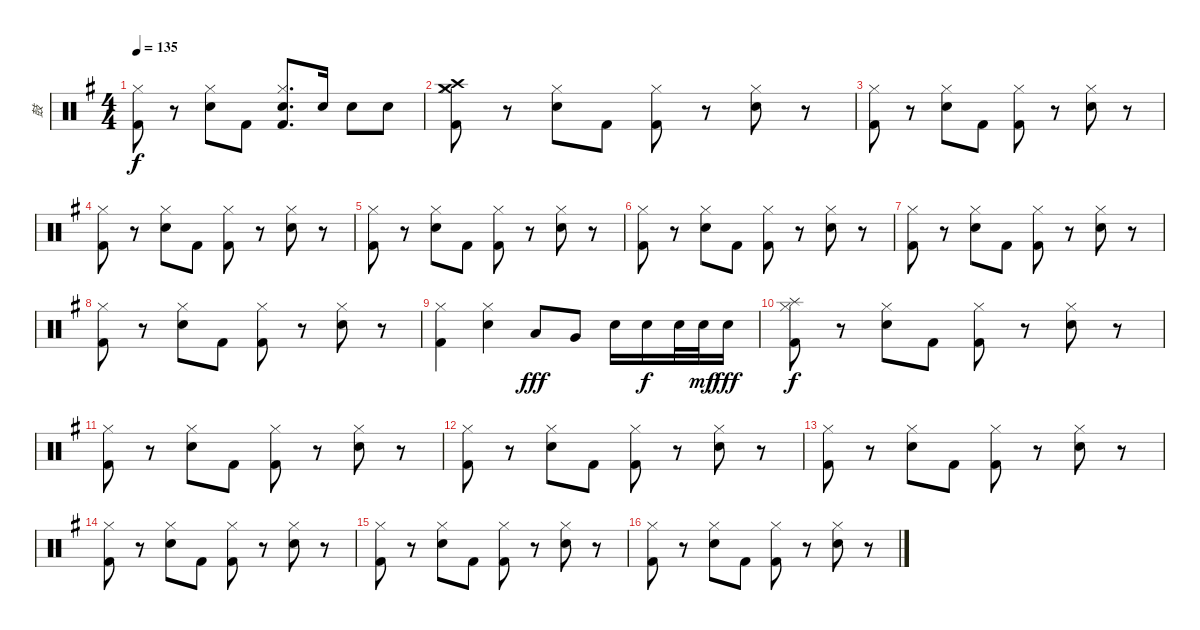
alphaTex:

\track ("鼓" "鼓") {instrument percussion}
\staff {score}
\articulation defaults
\ts (4 4)
\tempo 135
\clef neutral
\ks g
("Kick (hit) 2" "Hi-Hat (closed)").8{dy f} r.8 ("Snare (hit) 2" "Hi-Hat (closed)").8 "Kick (hit) 2".8 ("Kick (hit) 2" "Snare (hit) 2" "Hi-Hat (closed)").8{d} "Snare (hit) 2".16 "Snare (hit) 2".8 "Snare (hit) 2".8 |
("Crash high (hit)" "Crash medium (hit)" "Kick (hit) 2" "Hi-Hat (closed)").8 r.8 ("Snare (hit) 2" "Hi-Hat (closed)").8 "Kick (hit) 2".8 ("Kick (hit) 2" "Hi-Hat (closed)").8 r.8 ("Snare (hit) 2" "Hi-Hat (closed)").8 r.8 |
("Kick (hit) 2" "Hi-Hat (closed)").8 r.8 ("Snare (hit) 2" "Hi-Hat (closed)").8 "Kick (hit) 2".8 ("Kick (hit) 2" "Hi-Hat (closed)").8 r.8 ("Snare (hit) 2" "Hi-Hat (closed)").8 r.8 |
("Kick (hit) 2" "Hi-Hat (closed)").8 r.8 ("Snare (hit) 2" "Hi-Hat (closed)").8 "Kick (hit) 2".8 ("Kick (hit) 2" "Hi-Hat (closed)").8 r.8 ("Snare (hit) 2" "Hi-Hat (closed)").8 r.8 |
("Kick (hit) 2" "Hi-Hat (closed)").8 r.8 ("Snare (hit) 2" "Hi-Hat (closed)").8 "Kick (hit) 2".8 ("Kick (hit) 2" "Hi-Hat (closed)").8 r.8 ("Snare (hit) 2" "Hi-Hat (closed)").8 r.8 |
("Kick (hit) 2" "Hi-Hat (closed)").8 r.8 ("Snare (hit) 2" "Hi-Hat (closed)").8 "Kick (hit) 2".8 ("Kick (hit) 2" "Hi-Hat (closed)").8 r.8 ("Snare (hit) 2" "Hi-Hat (closed)").8 r.8 |
("Kick (hit) 2" "Hi-Hat (closed)").8 r.8 ("Snare (hit) 2" "Hi-Hat (closed)").8 "Kick (hit) 2".8 ("Kick (hit) 2" "Hi-Hat (closed)").8 r.8 ("Snare (hit) 2" "Hi-Hat (closed)").8 r.8 |
("Kick (hit) 2" "Hi-Hat (closed)").8 r.8 ("Snare (hit) 2" "Hi-Hat (closed)").8 "Kick (hit) 2".8 ("Kick (hit) 2" "Hi-Hat (closed)").8 r.8 ("Snare (hit) 2" "Hi-Hat (closed)").8 r.8 |
("Kick (hit) 2" "Hi-Hat (closed)").4 ("Snare (hit) 2" "Hi-Hat (closed)").4 "Low Tom (hit)".8{dy fff} "Very Low Tom (hit)".8 "Snare (hit) 2".16 "Snare (hit) 2".16{dy f} "Snare (hit) 2".32 "Snare (hit) 2".32{dy mf} "Snare (hit) 2".16{dy fff} |
("Splash (hit)" "Kick (hit) 2" "Hi-Hat (closed)").8{dy f} r.8 ("Snare (hit) 2" "Hi-Hat (closed)").8 "Kick (hit) 2".8 ("Kick (hit) 2" "Hi-Hat (closed)").8 r.8 ("Snare (hit) 2" "Hi-Hat (closed)").8 r.8 |
("Kick (hit) 2" "Hi-Hat (closed)").8 r.8 ("Snare (hit) 2" "Hi-Hat (closed)").8 "Kick (hit) 2".8 ("Kick (hit) 2" "Hi-Hat (closed)").8 r.8 ("Snare (hit) 2" "Hi-Hat (closed)").8 r.8 |
("Kick (hit) 2" "Hi-Hat (closed)").8 r.8 ("Snare (hit) 2" "Hi-Hat (closed)").8 "Kick (hit) 2".8 ("Kick (hit) 2" "Hi-Hat (closed)").8 r.8 ("Snare (hit) 2" "Hi-Hat (closed)").8 r.8 |
("Kick (hit) 2" "Hi-Hat (closed)").8 r.8 ("Snare (hit) 2" "Hi-Hat (closed)").8 "Kick (hit) 2".8 ("Kick (hit) 2" "Hi-Hat (closed)").8 r.8 ("Snare (hit) 2" "Hi-Hat (closed)").8 r.8 |
("Kick (hit) 2" "Hi-Hat (closed)").8 r.8 ("Snare (hit) 2" "Hi-Hat (closed)").8 "Kick (hit) 2".8 ("Kick (hit) 2" "Hi-Hat (closed)").8 r.8 ("Snare (hit) 2" "Hi-Hat (closed)").8 r.8 |
("Kick (hit) 2" "Hi-Hat (closed)").8 r.8 ("Snare (hit) 2" "Hi-Hat (closed)").8 "Kick (hit) 2".8 ("Kick (hit) 2" "Hi-Hat (closed)").8 r.8 ("Snare (hit) 2" "Hi-Hat (closed)").8 r.8 |
("Kick (hit) 2" "Hi-Hat (closed)").8 r.8 ("Snare (hit) 2" "Hi-Hat (closed)").8 "Kick (hit) 2".8 ("Kick (hit) 2" "Hi-Hat (closed)").8 r.8 ("Snare (hit) 2" "Hi-Hat (closed)").8 r.8
